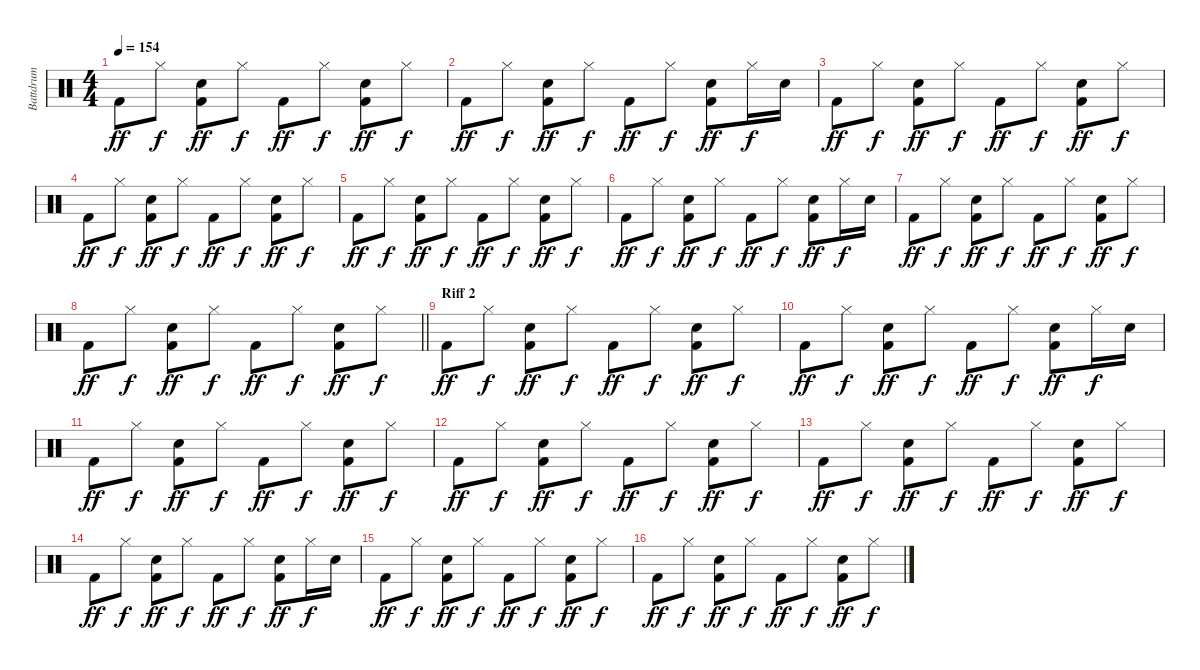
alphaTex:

\track ("Battdrum" "Battdrum") {instrument percussion}
\staff {score}
\articulation defaults
\ts (4 4)
\tempo 154
\clef neutral
\ks c "Kick (hit) 2".8{dy ff} "Hi-Hat (closed)".8{dy f}
("Kick (hit) 2" "Electric Snare (hit)").8{dy ff} "Hi-Hat (closed)".8{dy f} "Kick (hit) 2".8{dy ff} "Hi-Hat (closed)".8{dy f} ("Kick (hit) 2" "Electric Snare (hit)").8{dy ff} "Hi-Hat (closed)".8{dy f} |
"Kick (hit) 2".8{dy ff} "Hi-Hat (closed)".8{dy f} ("Kick (hit) 2" "Electric Snare (hit)").8{dy ff} "Hi-Hat (closed)".8{dy f} "Kick (hit) 2".8{dy ff} "Hi-Hat (closed)".8{dy f} ("Kick (hit) 2" "Electric Snare (hit)").8{dy ff} "Hi-Hat (closed)".16{dy f} "Electric Snare (hit)".16 |
"Kick (hit) 2".8{dy ff} "Hi-Hat (closed)".8{dy f} ("Kick (hit) 2" "Electric Snare (hit)").8{dy ff} "Hi-Hat (closed)".8{dy f} "Kick (hit) 2".8{dy ff} "Hi-Hat (closed)".8{dy f} ("Kick (hit) 2" "Electric Snare (hit)").8{dy ff} "Hi-Hat (closed)".8{dy f} |
"Kick (hit) 2".8{dy ff} "Hi-Hat (closed)".8{dy f} ("Kick (hit) 2" "Electric Snare (hit)").8{dy ff} "Hi-Hat (closed)".8{dy f} "Kick (hit) 2".8{dy ff} "Hi-Hat (closed)".8{dy f} ("Kick (hit) 2" "Electric Snare (hit)").8{dy ff} "Hi-Hat (closed)".8{dy f} |
"Kick (hit) 2".8{dy ff} "Hi-Hat (closed)".8{dy f} ("Kick (hit) 2" "Electric Snare (hit)").8{dy ff} "Hi-Hat (closed)".8{dy f} "Kick (hit) 2".8{dy ff} "Hi-Hat (closed)".8{dy f} ("Kick (hit) 2" "Electric Snare (hit)").8{dy ff} "Hi-Hat (closed)".8{dy f} |
"Kick (hit) 2".8{dy ff} "Hi-Hat (closed)".8{dy f} ("Kick (hit) 2" "Electric Snare (hit)").8{dy ff} "Hi-Hat (closed)".8{dy f} "Kick (hit) 2".8{dy ff} "Hi-Hat (closed)".8{dy f} ("Kick (hit) 2" "Electric Snare (hit)").8{dy ff} "Hi-Hat (closed)".16{dy f} "Electric Snare (hit)".16 |
"Kick (hit) 2".8{dy ff} "Hi-Hat (closed)".8{dy f} ("Kick (hit) 2" "Electric Snare (hit)").8{dy ff} "Hi-Hat (closed)".8{dy f} "Kick (hit) 2".8{dy ff} "Hi-Hat (closed)".8{dy f} ("Kick (hit) 2" "Electric Snare (hit)").8{dy ff} "Hi-Hat (closed)".8{dy f} |
\barLineRight lightlight "Kick (hit) 2".8{dy ff} "Hi-Hat (closed)".8{dy f}
("Kick (hit) 2" "Electric Snare (hit)").8{dy ff} "Hi-Hat (closed)".8{dy f} "Kick (hit) 2".8{dy ff} "Hi-Hat (closed)".8{dy f} ("Kick (hit) 2" "Electric Snare (hit)").8{dy ff} "Hi-Hat (closed)".8{dy f} |
\section ("" "Riff 2")
"Kick (hit) 2".8{dy ff} "Hi-Hat (closed)".8{dy f} ("Kick (hit) 2" "Electric Snare (hit)").8{dy ff} "Hi-Hat (closed)".8{dy f} "Kick (hit) 2".8{dy ff} "Hi-Hat (closed)".8{dy f} ("Kick (hit) 2" "Electric Snare (hit)").8{dy ff} "Hi-Hat (closed)".8{dy f} |
"Kick (hit) 2".8{dy ff} "Hi-Hat (closed)".8{dy f} ("Kick (hit) 2" "Electric Snare (hit)").8{dy ff} "Hi-Hat (closed)".8{dy f} "Kick (hit) 2".8{dy ff} "Hi-Hat (closed)".8{dy f} ("Kick (hit) 2" "Electric Snare (hit)").8{dy ff} "Hi-Hat (closed)".16{dy f} "Electric Snare (hit)".16 |
"Kick (hit) 2".8{dy ff} "Hi-Hat (closed)".8{dy f} ("Kick (hit) 2" "Electric Snare (hit)").8{dy ff} "Hi-Hat (closed)".8{dy f} "Kick (hit) 2".8{dy ff} "Hi-Hat (closed)".8{dy f} ("Kick (hit) 2" "Electric Snare (hit)").8{dy ff} "Hi-Hat (closed)".8{dy f} |
"Kick (hit) 2".8{dy ff} "Hi-Hat (closed)".8{dy f} ("Kick (hit) 2" "Electric Snare (hit)").8{dy ff} "Hi-Hat (closed)".8{dy f} "Kick (hit) 2".8{dy ff} "Hi-Hat (closed)".8{dy f} ("Kick (hit) 2" "Electric Snare (hit)").8{dy ff} "Hi-Hat (closed)".8{dy f} |
"Kick (hit) 2".8{dy ff} "Hi-Hat (closed)".8{dy f} ("Kick (hit) 2" "Electric Snare (hit)").8{dy ff} "Hi-Hat (closed)".8{dy f} "Kick (hit) 2".8{dy ff} "Hi-Hat (closed)".8{dy f} ("Kick (hit) 2" "Electric Snare (hit)").8{dy ff} "Hi-Hat (closed)".8{dy f} |
"Kick (hit) 2".8{dy ff} "Hi-Hat (closed)".8{dy f} ("Kick (hit) 2" "Electric Snare (hit)").8{dy ff} "Hi-Hat (closed)".8{dy f} "Kick (hit) 2".8{dy ff} "Hi-Hat (closed)".8{dy f} ("Kick (hit) 2" "Electric Snare (hit)").8{dy ff} "Hi-Hat (closed)".16{dy f} "Electric Snare (hit)".16 |
"Kick (hit) 2".8{dy ff} "Hi-Hat (closed)".8{dy f} ("Kick (hit) 2" "Electric Snare (hit)").8{dy ff} "Hi-Hat (closed)".8{dy f} "Kick (hit) 2".8{dy ff} "Hi-Hat (closed)".8{dy f} ("Kick (hit) 2" "Electric Snare (hit)").8{dy ff} "Hi-Hat (closed)".8{dy f} |
"Kick (hit) 2".8{dy ff} "Hi-Hat (closed)".8{dy f} ("Kick (hit) 2" "Electric Snare (hit)").8{dy ff} "Hi-Hat (closed)".8{dy f} "Kick (hit) 2".8{dy ff} "Hi-Hat (closed)".8{dy f} ("Kick (hit) 2" "Electric Snare (hit)").8{dy ff} "Hi-Hat (closed)".8{dy f}
